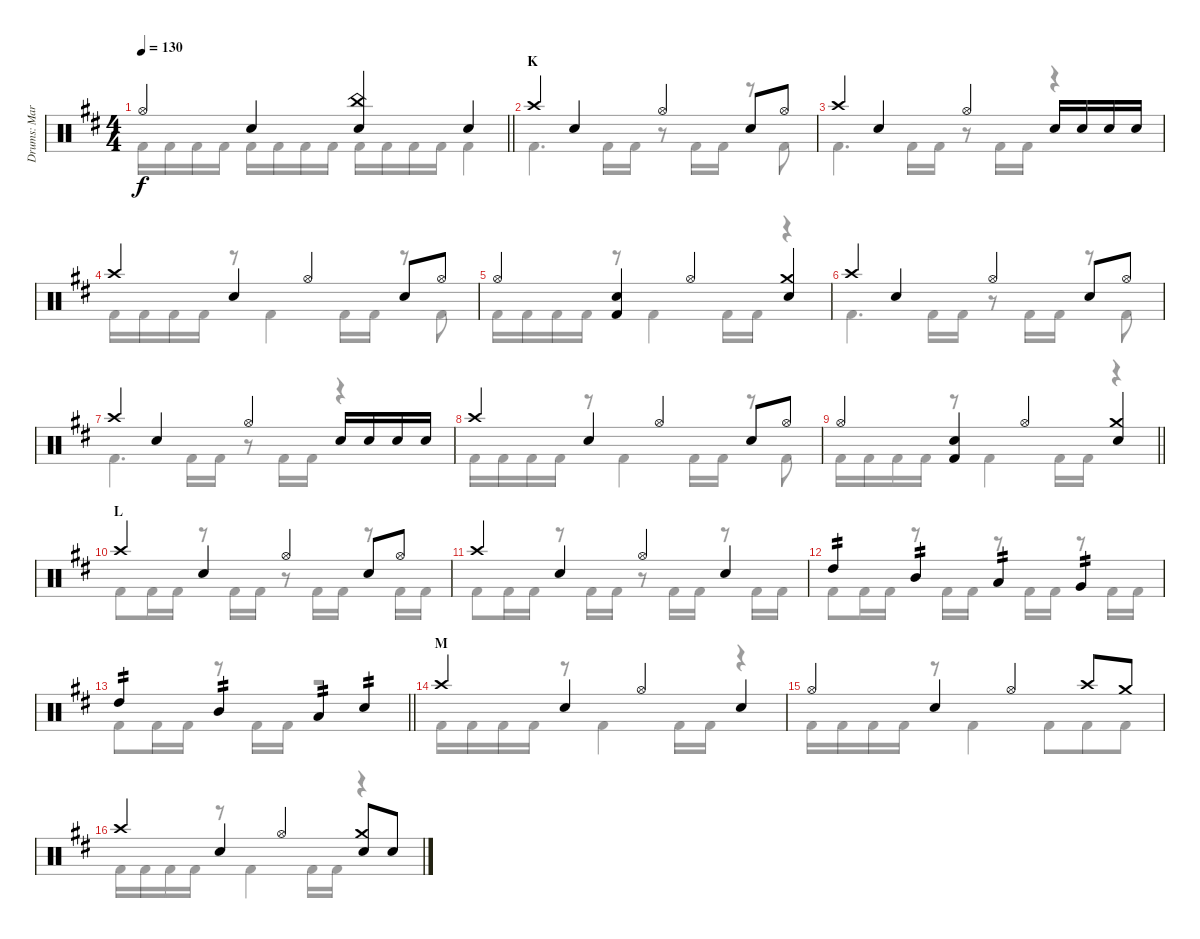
\track ("Drums: Mark" "Drums: Mar") {instrument percussion}
\staff {score}
\articulation defaults
\voice
\ts (4 4)
\tempo 130
\clef neutral
\barLineRight lightlight
\ks d "Hi-Hat (open)".4{dy f} "Snare (hit) 2".4
("China (hit)" "Snare (hit) 2").4 "Snare (hit) 2".4 |
\section ("" "K")
"Crash high (hit)".4 "Snare (hit) 2".4 "Hi-Hat (open)".4 "Snare (hit) 2".8 "Hi-Hat (open)".8 |
"Crash high (hit)".4 "Snare (hit) 2".4 "Hi-Hat (open)".4 "Snare (hit) 2".16 "Snare (hit) 2".16 "Snare (hit) 2".16 "Snare (hit) 2".16 |
"Crash high (hit)".4 "Snare (hit) 2".4 "Hi-Hat (open)".4 "Snare (hit) 2".8 "Hi-Hat (open)".8 |
"Hi-Hat (open)".4 ("Snare (hit) 2" "Kick (hit) 2").4 "Hi-Hat (open)".4 ("Crash medium (hit)" "Snare (hit) 2").4 |
"Crash high (hit)".4 "Snare (hit) 2".4 "Hi-Hat (open)".4 "Snare (hit) 2".8 "Hi-Hat (open)".8 |
"Crash high (hit)".4 "Snare (hit) 2".4 "Hi-Hat (open)".4 "Snare (hit) 2".16 "Snare (hit) 2".16 "Snare (hit) 2".16 "Snare (hit) 2".16 |
"Crash high (hit)".4 "Snare (hit) 2".4 "Hi-Hat (open)".4 "Snare (hit) 2".8 "Hi-Hat (open)".8 |
\barLineRight lightlight "Hi-Hat (open)".4
("Snare (hit) 2" "Kick (hit) 2").4 "Hi-Hat (open)".4 ("Crash medium (hit)" "Snare (hit) 2").4 |
\section ("" "L")
"Crash high (hit)".4 "Snare (hit) 2".4 "Hi-Hat (open)".4 "Snare (hit) 2".8 "Hi-Hat (open)".8 |
"Crash high (hit)".4 "Snare (hit) 2".4 "Hi-Hat (open)".4 "Snare (hit) 2".4 |
"High Tom (hit)".4{tp 2} "Mid Tom (hit)".4{tp 2} "Low Tom (hit)".4{tp 2} "Very Low Tom (hit)".4{tp 2} |
\barLineRight lightlight "High Tom (hit)".4{tp 2} "Mid Tom (hit)".4{tp 2} "Low Tom (hit)".4{tp 2} "Snare (hit) 2".4{tp 2}
|
\section ("" "M")
"Crash high (hit)".4 "Snare (hit) 2".4 "Hi-Hat (open)".4 "Snare (hit) 2".4 |
"Hi-Hat (open)".4 "Snare (hit) 2".4 "Hi-Hat (open)".4 "Crash high (hit)".8 "Crash medium (hit)".8 |
"Crash high (hit)".4 "Snare (hit) 2".4 "Hi-Hat (open)".4 ("Crash medium (hit)" "Snare (hit) 2").8 "Snare (hit) 2".8
\voice
\clef neutral
\ottava regular
\simile none
\barLineRight lightlight
\ks d "Kick (hit) 2".16{dy f} "Kick (hit) 2".16 "Kick (hit) 2".16 "Kick (hit) 2".16 "Kick (hit) 2".16 "Kick (hit) 2".16 "Kick (hit) 2".16 "Kick (hit) 2".16 "Kick (hit) 2".16 "Kick (hit) 2".16 "Kick (hit) 2".16 "Kick (hit) 2".16 "Kick (hit) 2".4
|
"Kick (hit) 2".4{d} "Kick (hit) 2".16 "Kick (hit) 2".16 r.8 "Kick (hit) 2".16 "Kick (hit) 2".16 r.8 "Kick (hit) 2".8 |
"Kick (hit) 2".4{d} "Kick (hit) 2".16 "Kick (hit) 2".16 r.8 "Kick (hit) 2".16 "Kick (hit) 2".16 r.4 |
"Kick (hit) 2".16 "Kick (hit) 2".16 "Kick (hit) 2".16 "Kick (hit) 2".16 r.8 "Kick (hit) 2".4 "Kick (hit) 2".16 "Kick (hit) 2".16 r.8 "Kick (hit) 2".8 |
"Kick (hit) 2".16 "Kick (hit) 2".16 "Kick (hit) 2".16 "Kick (hit) 2".16 r.8 "Kick (hit) 2".4 "Kick (hit) 2".16 "Kick (hit) 2".16 r.4 |
"Kick (hit) 2".4{d} "Kick (hit) 2".16 "Kick (hit) 2".16 r.8 "Kick (hit) 2".16 "Kick (hit) 2".16 r.8 "Kick (hit) 2".8 |
"Kick (hit) 2".4{d} "Kick (hit) 2".16 "Kick (hit) 2".16 r.8 "Kick (hit) 2".16 "Kick (hit) 2".16 r.4 |
"Kick (hit) 2".16 "Kick (hit) 2".16 "Kick (hit) 2".16 "Kick (hit) 2".16 r.8 "Kick (hit) 2".4 "Kick (hit) 2".16 "Kick (hit) 2".16 r.8 "Kick (hit) 2".8 |
\barLineRight lightlight "Kick (hit) 2".16 "Kick (hit) 2".16 "Kick (hit) 2".16 "Kick (hit) 2".16
r.8 "Kick (hit) 2".4 "Kick (hit) 2".16 "Kick (hit) 2".16 r.4 |
"Kick (hit) 2".8 "Kick (hit) 2".16 "Kick (hit) 2".16 r.8 "Kick (hit) 2".16 "Kick (hit) 2".16 r.8 "Kick (hit) 2".16 "Kick (hit) 2".16 r.8 "Kick (hit) 2".16 "Kick (hit) 2".16 |
"Kick (hit) 2".8 "Kick (hit) 2".16 "Kick (hit) 2".16 r.8 "Kick (hit) 2".16 "Kick (hit) 2".16 r.8 "Kick (hit) 2".16 "Kick (hit) 2".16 r.8 "Kick (hit) 2".16 "Kick (hit) 2".16 |
"Kick (hit) 2".8 "Kick (hit) 2".16 "Kick (hit) 2".16 r.8 "Kick (hit) 2".16 "Kick (hit) 2".16 r.8 "Kick (hit) 2".16 "Kick (hit) 2".16 r.8 "Kick (hit) 2".16 "Kick (hit) 2".16 |
\barLineRight lightlight "Kick (hit) 2".8 "Kick (hit) 2".16 "Kick (hit) 2".16
r.8 "Kick (hit) 2".16 "Kick (hit) 2".16 r.2 |
"Kick (hit) 2".16 "Kick (hit) 2".16 "Kick (hit) 2".16 "Kick (hit) 2".16 r.8 "Kick (hit) 2".4 "Kick (hit) 2".16 "Kick (hit) 2".16 r.4 |
"Kick (hit) 2".16 "Kick (hit) 2".16 "Kick (hit) 2".16 "Kick (hit) 2".16 r.8 "Kick (hit) 2".4 "Kick (hit) 2".8{beam merge} "Kick (hit) 2".8 "Kick (hit) 2".8 |
"Kick (hit) 2".16 "Kick (hit) 2".16 "Kick (hit) 2".16 "Kick (hit) 2".16 r.8 "Kick (hit) 2".4 "Kick (hit) 2".16 "Kick (hit) 2".16 r.4
